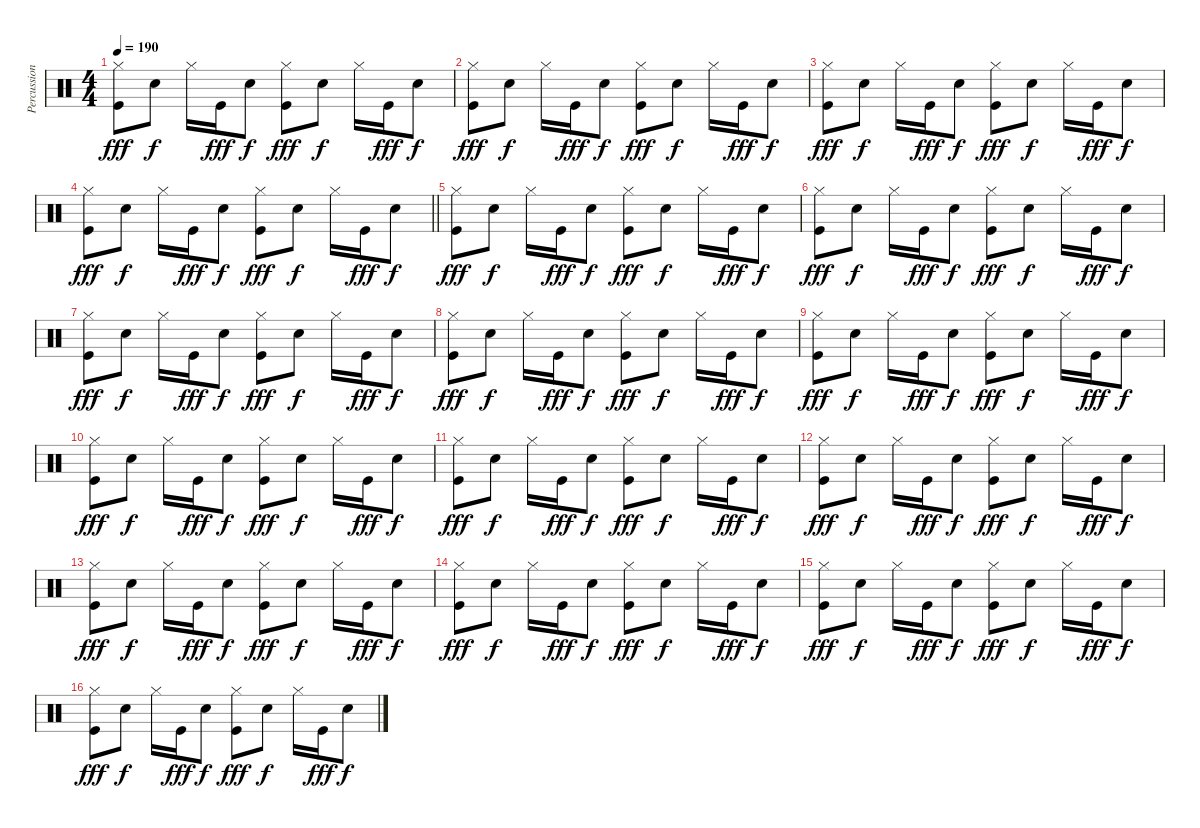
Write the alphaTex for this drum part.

\track ("Percussioni" "Percussion") {instrument percussion}
\staff {score}
\articulation defaults
\ts (4 4)
\tempo 190
\clef neutral
\ks c
("Kick (hit)" "Hi-Hat (closed)").8{dy fff} "Snare (hit) 2".8{dy f} "Hi-Hat (closed)".16 "Kick (hit)".16{dy fff} "Snare (hit) 2".8{dy f} ("Kick (hit)" "Hi-Hat (closed)").8{dy fff} "Snare (hit) 2".8{dy f} "Hi-Hat (closed)".16 "Kick (hit)".16{dy fff} "Snare (hit) 2".8{dy f} |
("Kick (hit)" "Hi-Hat (closed)").8{dy fff} "Snare (hit) 2".8{dy f} "Hi-Hat (closed)".16 "Kick (hit)".16{dy fff} "Snare (hit) 2".8{dy f} ("Kick (hit)" "Hi-Hat (closed)").8{dy fff} "Snare (hit) 2".8{dy f} "Hi-Hat (closed)".16 "Kick (hit)".16{dy fff} "Snare (hit) 2".8{dy f} |
("Kick (hit)" "Hi-Hat (closed)").8{dy fff} "Snare (hit) 2".8{dy f} "Hi-Hat (closed)".16 "Kick (hit)".16{dy fff} "Snare (hit) 2".8{dy f} ("Kick (hit)" "Hi-Hat (closed)").8{dy fff} "Snare (hit) 2".8{dy f} "Hi-Hat (closed)".16 "Kick (hit)".16{dy fff} "Snare (hit) 2".8{dy f} |
\barLineRight lightlight
("Kick (hit)" "Hi-Hat (closed)").8{dy fff} "Snare (hit) 2".8{dy f} "Hi-Hat (closed)".16 "Kick (hit)".16{dy fff} "Snare (hit) 2".8{dy f} ("Kick (hit)" "Hi-Hat (closed)").8{dy fff} "Snare (hit) 2".8{dy f} "Hi-Hat (closed)".16 "Kick (hit)".16{dy fff} "Snare (hit) 2".8{dy f} |
("Kick (hit)" "Hi-Hat (closed)").8{dy fff} "Snare (hit) 2".8{dy f} "Hi-Hat (closed)".16 "Kick (hit)".16{dy fff} "Snare (hit) 2".8{dy f} ("Kick (hit)" "Hi-Hat (closed)").8{dy fff} "Snare (hit) 2".8{dy f} "Hi-Hat (closed)".16 "Kick (hit)".16{dy fff} "Snare (hit) 2".8{dy f} |
("Kick (hit)" "Hi-Hat (closed)").8{dy fff} "Snare (hit) 2".8{dy f} "Hi-Hat (closed)".16 "Kick (hit)".16{dy fff} "Snare (hit) 2".8{dy f} ("Kick (hit)" "Hi-Hat (closed)").8{dy fff} "Snare (hit) 2".8{dy f} "Hi-Hat (closed)".16 "Kick (hit)".16{dy fff} "Snare (hit) 2".8{dy f} |
("Kick (hit)" "Hi-Hat (closed)").8{dy fff} "Snare (hit) 2".8{dy f} "Hi-Hat (closed)".16 "Kick (hit)".16{dy fff} "Snare (hit) 2".8{dy f} ("Kick (hit)" "Hi-Hat (closed)").8{dy fff} "Snare (hit) 2".8{dy f} "Hi-Hat (closed)".16 "Kick (hit)".16{dy fff} "Snare (hit) 2".8{dy f} |
("Kick (hit)" "Hi-Hat (closed)").8{dy fff} "Snare (hit) 2".8{dy f} "Hi-Hat (closed)".16 "Kick (hit)".16{dy fff} "Snare (hit) 2".8{dy f} ("Kick (hit)" "Hi-Hat (closed)").8{dy fff} "Snare (hit) 2".8{dy f} "Hi-Hat (closed)".16 "Kick (hit)".16{dy fff} "Snare (hit) 2".8{dy f} |
("Kick (hit)" "Hi-Hat (closed)").8{dy fff} "Snare (hit) 2".8{dy f} "Hi-Hat (closed)".16 "Kick (hit)".16{dy fff} "Snare (hit) 2".8{dy f} ("Kick (hit)" "Hi-Hat (closed)").8{dy fff} "Snare (hit) 2".8{dy f} "Hi-Hat (closed)".16 "Kick (hit)".16{dy fff} "Snare (hit) 2".8{dy f} |
("Kick (hit)" "Hi-Hat (closed)").8{dy fff} "Snare (hit) 2".8{dy f} "Hi-Hat (closed)".16 "Kick (hit)".16{dy fff} "Snare (hit) 2".8{dy f} ("Kick (hit)" "Hi-Hat (closed)").8{dy fff} "Snare (hit) 2".8{dy f} "Hi-Hat (closed)".16 "Kick (hit)".16{dy fff} "Snare (hit) 2".8{dy f} |
("Kick (hit)" "Hi-Hat (closed)").8{dy fff} "Snare (hit) 2".8{dy f} "Hi-Hat (closed)".16 "Kick (hit)".16{dy fff} "Snare (hit) 2".8{dy f} ("Kick (hit)" "Hi-Hat (closed)").8{dy fff} "Snare (hit) 2".8{dy f} "Hi-Hat (closed)".16 "Kick (hit)".16{dy fff} "Snare (hit) 2".8{dy f} |
("Kick (hit)" "Hi-Hat (closed)").8{dy fff} "Snare (hit) 2".8{dy f} "Hi-Hat (closed)".16 "Kick (hit)".16{dy fff} "Snare (hit) 2".8{dy f} ("Kick (hit)" "Hi-Hat (closed)").8{dy fff} "Snare (hit) 2".8{dy f} "Hi-Hat (closed)".16 "Kick (hit)".16{dy fff} "Snare (hit) 2".8{dy f} |
("Kick (hit)" "Hi-Hat (closed)").8{dy fff} "Snare (hit) 2".8{dy f} "Hi-Hat (closed)".16 "Kick (hit)".16{dy fff} "Snare (hit) 2".8{dy f} ("Kick (hit)" "Hi-Hat (closed)").8{dy fff} "Snare (hit) 2".8{dy f} "Hi-Hat (closed)".16 "Kick (hit)".16{dy fff} "Snare (hit) 2".8{dy f} |
("Kick (hit)" "Hi-Hat (closed)").8{dy fff} "Snare (hit) 2".8{dy f} "Hi-Hat (closed)".16 "Kick (hit)".16{dy fff} "Snare (hit) 2".8{dy f} ("Kick (hit)" "Hi-Hat (closed)").8{dy fff} "Snare (hit) 2".8{dy f} "Hi-Hat (closed)".16 "Kick (hit)".16{dy fff} "Snare (hit) 2".8{dy f} |
("Kick (hit)" "Hi-Hat (closed)").8{dy fff} "Snare (hit) 2".8{dy f} "Hi-Hat (closed)".16 "Kick (hit)".16{dy fff} "Snare (hit) 2".8{dy f} ("Kick (hit)" "Hi-Hat (closed)").8{dy fff} "Snare (hit) 2".8{dy f} "Hi-Hat (closed)".16 "Kick (hit)".16{dy fff} "Snare (hit) 2".8{dy f} |
("Kick (hit)" "Hi-Hat (closed)").8{dy fff} "Snare (hit) 2".8{dy f} "Hi-Hat (closed)".16 "Kick (hit)".16{dy fff} "Snare (hit) 2".8{dy f} ("Kick (hit)" "Hi-Hat (closed)").8{dy fff} "Snare (hit) 2".8{dy f} "Hi-Hat (closed)".16 "Kick (hit)".16{dy fff} "Snare (hit) 2".8{dy f}
